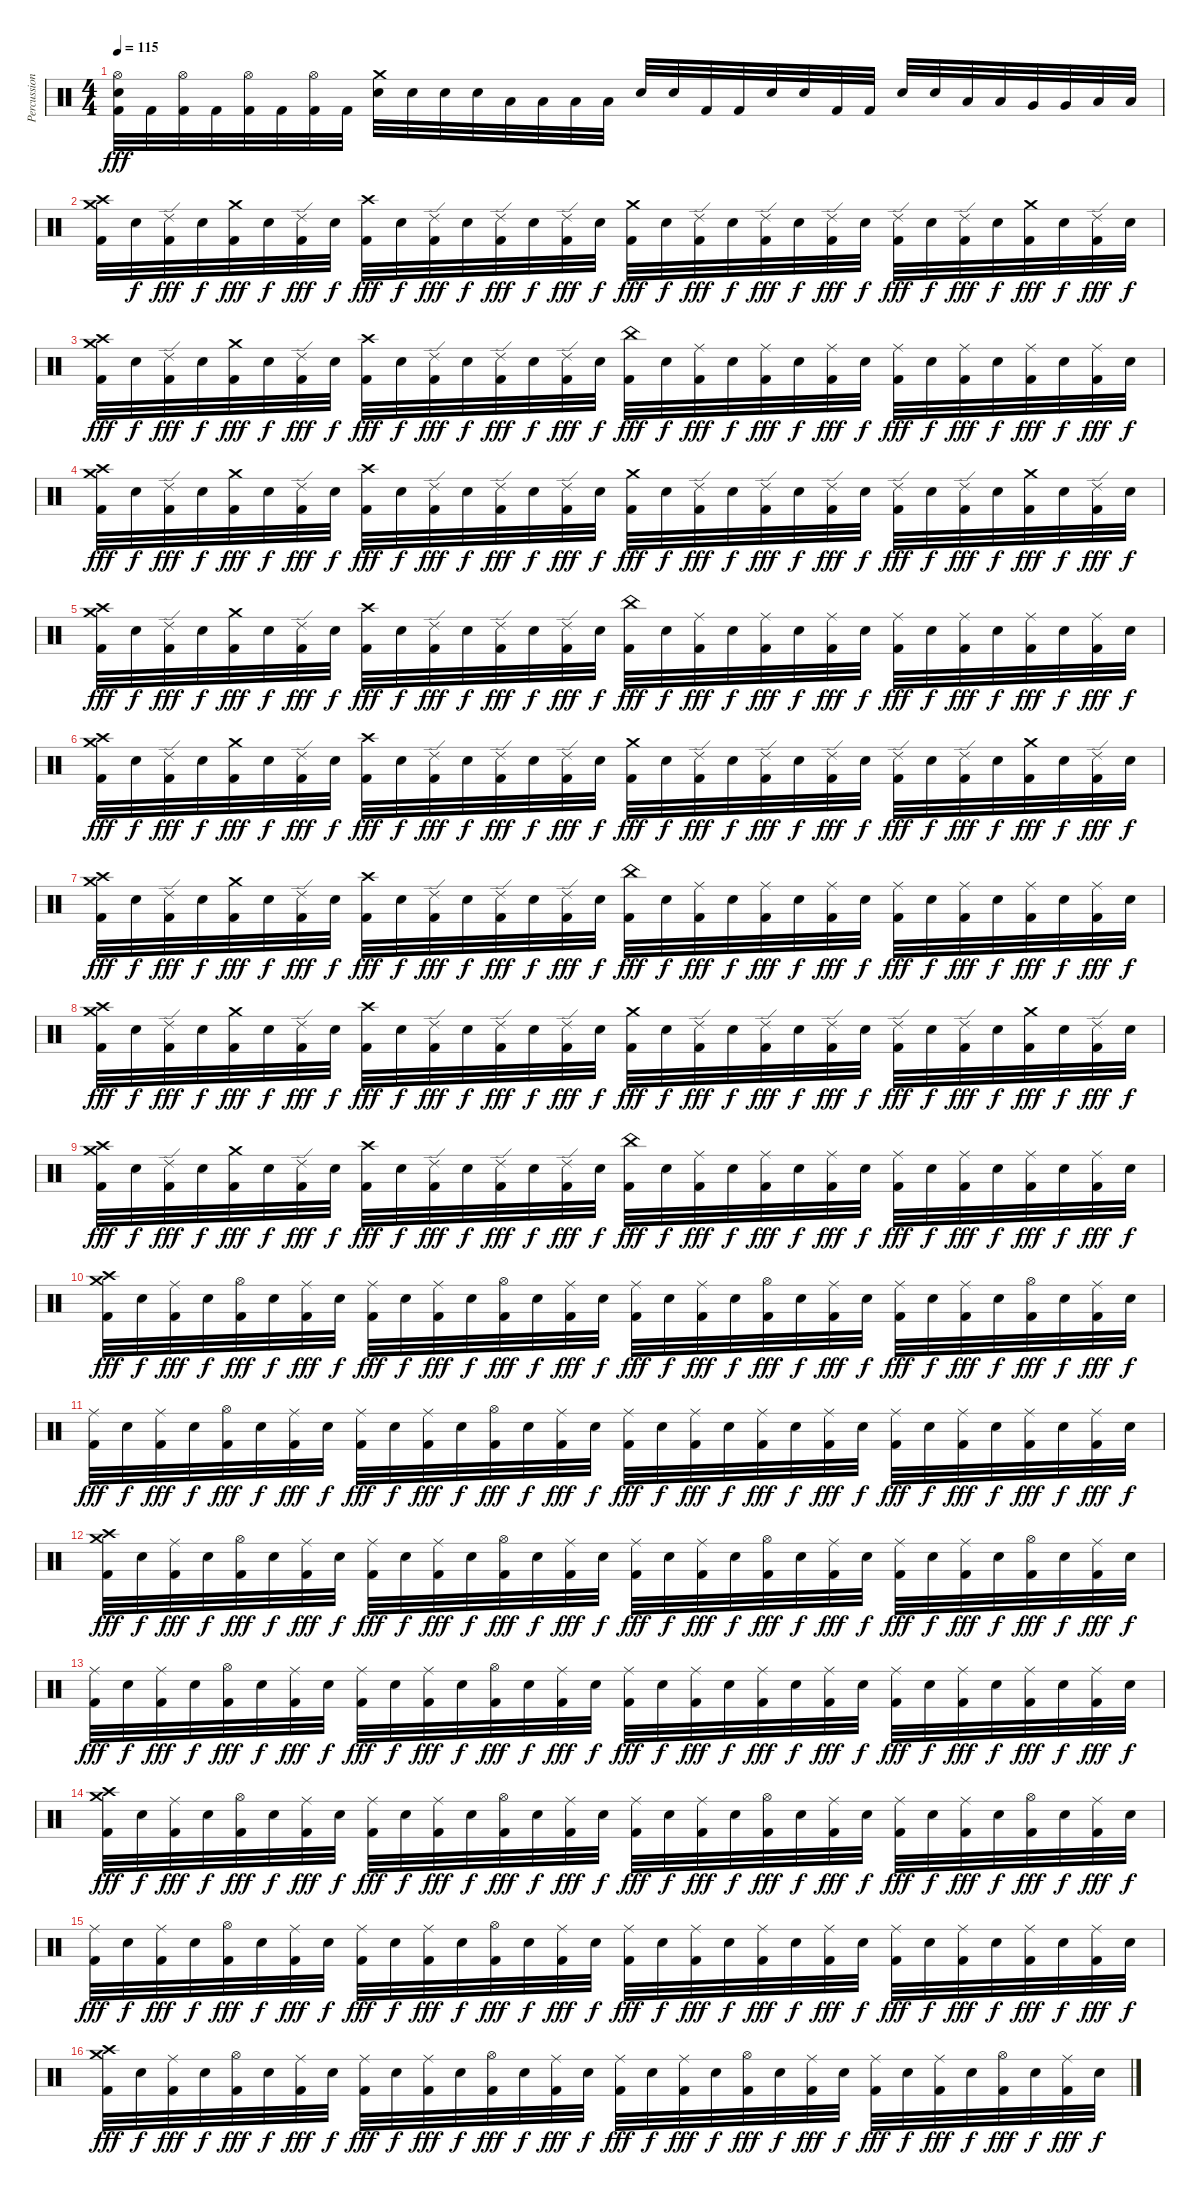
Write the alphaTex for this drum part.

\track ("Percussion" "Percussion") {instrument percussion}
\staff
\articulation defaults
\ts (4 4)
\tempo 115
\clef neutral
\ks c
("Hi-Hat (open)" "Snare (hit) 2" "Kick (hit) 2").32{dy fff} "Kick (hit) 2".32 ("Hi-Hat (open)" "Kick (hit) 2").32 "Kick (hit) 2".32 ("Hi-Hat (open)" "Kick (hit) 2").32 "Kick (hit) 2".32 ("Hi-Hat (open)" "Kick (hit) 2").32 "Kick (hit) 2".32 ("Crash medium (hit)" "Snare (hit) 2").32 "Snare (hit) 2".32 "Snare (hit) 2".32 "Snare (hit) 2".32 "Low Tom (hit)".32 "Low Tom (hit)".32 "Low Tom (hit)".32 "Low Tom (hit)".32 "Snare (hit) 2".32 "Snare (hit) 2".32 "Kick (hit) 2".32 "Kick (hit) 2".32 "Snare (hit) 2".32 "Snare (hit) 2".32 "Kick (hit) 2".32 "Kick (hit) 2".32 "Snare (hit) 2".32 "Snare (hit) 2".32 "Low Tom (hit)".32 "Low Tom (hit)".32 "Very Low Tom (hit)".32 "Very Low Tom (hit)".32 "Low Floor Tom (hit)".32 "Low Floor Tom (hit)".32 |
("Crash high (hit)" "Crash medium (hit)" "Kick (hit) 2").32 "Snare (hit) 2".32{dy f} ("Ride (edge) 2" "Kick (hit) 2").32{dy fff} "Snare (hit) 2".32{dy f} ("Crash medium (hit)" "Kick (hit) 2").32{dy fff} "Snare (hit) 2".32{dy f} ("Ride (edge) 2" "Kick (hit) 2").32{dy fff} "Snare (hit) 2".32{dy f} ("Crash high (hit)" "Kick (hit) 2").32{dy fff} "Snare (hit) 2".32{dy f} ("Ride (edge) 2" "Kick (hit) 2").32{dy fff} "Snare (hit) 2".32{dy f} ("Ride (edge) 2" "Kick (hit) 2").32{dy fff} "Snare (hit) 2".32{dy f} ("Ride (edge) 2" "Kick (hit) 2").32{dy fff} "Snare (hit) 2".32{dy f} ("Crash medium (hit)" "Kick (hit) 2").32{dy fff} "Snare (hit) 2".32{dy f} ("Ride (edge) 2" "Kick (hit) 2").32{dy fff} "Snare (hit) 2".32{dy f} ("Ride (edge) 2" "Kick (hit) 2").32{dy fff} "Snare (hit) 2".32{dy f} ("Ride (edge) 2" "Kick (hit) 2").32{dy fff} "Snare (hit) 2".32{dy f} ("Ride (edge) 2" "Kick (hit) 2").32{dy fff} "Snare (hit) 2".32{dy f} ("Ride (edge) 2" "Kick (hit) 2").32{dy fff} "Snare (hit) 2".32{dy f} ("Crash medium (hit)" "Kick (hit) 2").32{dy fff} "Snare (hit) 2".32{dy f} ("Ride (edge) 2" "Kick (hit) 2").32{dy fff} "Snare (hit) 2".32{dy f} |
("Crash high (hit)" "Crash medium (hit)" "Kick (hit) 2").32{dy fff} "Snare (hit) 2".32{dy f} ("Ride (edge) 2" "Kick (hit) 2").32{dy fff} "Snare (hit) 2".32{dy f} ("Crash medium (hit)" "Kick (hit) 2").32{dy fff} "Snare (hit) 2".32{dy f} ("Ride (edge) 2" "Kick (hit) 2").32{dy fff} "Snare (hit) 2".32{dy f} ("Crash high (hit)" "Kick (hit) 2").32{dy fff} "Snare (hit) 2".32{dy f} ("Ride (edge) 2" "Kick (hit) 2").32{dy fff} "Snare (hit) 2".32{dy f} ("Ride (edge) 2" "Kick (hit) 2").32{dy fff} "Snare (hit) 2".32{dy f} ("Ride (edge) 2" "Kick (hit) 2").32{dy fff} "Snare (hit) 2".32{dy f} ("China (hit)" "Kick (hit) 2").32{dy fff} "Snare (hit) 2".32{dy f} ("Ride (middle)" "Kick (hit) 2").32{dy fff} "Snare (hit) 2".32{dy f} ("Ride (middle)" "Kick (hit) 2").32{dy fff} "Snare (hit) 2".32{dy f} ("Ride (middle)" "Kick (hit) 2").32{dy fff} "Snare (hit) 2".32{dy f} ("Ride (middle)" "Kick (hit) 2").32{dy fff} "Snare (hit) 2".32{dy f} ("Ride (middle)" "Kick (hit) 2").32{dy fff} "Snare (hit) 2".32{dy f} ("Ride (middle)" "Kick (hit) 2").32{dy fff} "Snare (hit) 2".32{dy f} ("Ride (middle)" "Kick (hit) 2").32{dy fff} "Snare (hit) 2".32{dy f} |
("Crash high (hit)" "Crash medium (hit)" "Kick (hit) 2").32{dy fff} "Snare (hit) 2".32{dy f} ("Ride (edge) 2" "Kick (hit) 2").32{dy fff} "Snare (hit) 2".32{dy f} ("Crash medium (hit)" "Kick (hit) 2").32{dy fff} "Snare (hit) 2".32{dy f} ("Ride (edge) 2" "Kick (hit) 2").32{dy fff} "Snare (hit) 2".32{dy f} ("Crash high (hit)" "Kick (hit) 2").32{dy fff} "Snare (hit) 2".32{dy f} ("Ride (edge) 2" "Kick (hit) 2").32{dy fff} "Snare (hit) 2".32{dy f} ("Ride (edge) 2" "Kick (hit) 2").32{dy fff} "Snare (hit) 2".32{dy f} ("Ride (edge) 2" "Kick (hit) 2").32{dy fff} "Snare (hit) 2".32{dy f} ("Crash medium (hit)" "Kick (hit) 2").32{dy fff} "Snare (hit) 2".32{dy f} ("Ride (edge) 2" "Kick (hit) 2").32{dy fff} "Snare (hit) 2".32{dy f} ("Ride (edge) 2" "Kick (hit) 2").32{dy fff} "Snare (hit) 2".32{dy f} ("Ride (edge) 2" "Kick (hit) 2").32{dy fff} "Snare (hit) 2".32{dy f} ("Ride (edge) 2" "Kick (hit) 2").32{dy fff} "Snare (hit) 2".32{dy f} ("Ride (edge) 2" "Kick (hit) 2").32{dy fff} "Snare (hit) 2".32{dy f} ("Crash medium (hit)" "Kick (hit) 2").32{dy fff} "Snare (hit) 2".32{dy f} ("Ride (edge) 2" "Kick (hit) 2").32{dy fff} "Snare (hit) 2".32{dy f} |
("Crash high (hit)" "Crash medium (hit)" "Kick (hit) 2").32{dy fff} "Snare (hit) 2".32{dy f} ("Ride (edge) 2" "Kick (hit) 2").32{dy fff} "Snare (hit) 2".32{dy f} ("Crash medium (hit)" "Kick (hit) 2").32{dy fff} "Snare (hit) 2".32{dy f} ("Ride (edge) 2" "Kick (hit) 2").32{dy fff} "Snare (hit) 2".32{dy f} ("Crash high (hit)" "Kick (hit) 2").32{dy fff} "Snare (hit) 2".32{dy f} ("Ride (edge) 2" "Kick (hit) 2").32{dy fff} "Snare (hit) 2".32{dy f} ("Ride (edge) 2" "Kick (hit) 2").32{dy fff} "Snare (hit) 2".32{dy f} ("Ride (edge) 2" "Kick (hit) 2").32{dy fff} "Snare (hit) 2".32{dy f} ("China (hit)" "Kick (hit) 2").32{dy fff} "Snare (hit) 2".32{dy f} ("Ride (middle)" "Kick (hit) 2").32{dy fff} "Snare (hit) 2".32{dy f} ("Ride (middle)" "Kick (hit) 2").32{dy fff} "Snare (hit) 2".32{dy f} ("Ride (middle)" "Kick (hit) 2").32{dy fff} "Snare (hit) 2".32{dy f} ("Ride (middle)" "Kick (hit) 2").32{dy fff} "Snare (hit) 2".32{dy f} ("Ride (middle)" "Kick (hit) 2").32{dy fff} "Snare (hit) 2".32{dy f} ("Ride (middle)" "Kick (hit) 2").32{dy fff} "Snare (hit) 2".32{dy f} ("Ride (middle)" "Kick (hit) 2").32{dy fff} "Snare (hit) 2".32{dy f} |
("Crash high (hit)" "Crash medium (hit)" "Kick (hit) 2").32{dy fff} "Snare (hit) 2".32{dy f} ("Ride (edge) 2" "Kick (hit) 2").32{dy fff} "Snare (hit) 2".32{dy f} ("Crash medium (hit)" "Kick (hit) 2").32{dy fff} "Snare (hit) 2".32{dy f} ("Ride (edge) 2" "Kick (hit) 2").32{dy fff} "Snare (hit) 2".32{dy f} ("Crash high (hit)" "Kick (hit) 2").32{dy fff} "Snare (hit) 2".32{dy f} ("Ride (edge) 2" "Kick (hit) 2").32{dy fff} "Snare (hit) 2".32{dy f} ("Ride (edge) 2" "Kick (hit) 2").32{dy fff} "Snare (hit) 2".32{dy f} ("Ride (edge) 2" "Kick (hit) 2").32{dy fff} "Snare (hit) 2".32{dy f} ("Crash medium (hit)" "Kick (hit) 2").32{dy fff} "Snare (hit) 2".32{dy f} ("Ride (edge) 2" "Kick (hit) 2").32{dy fff} "Snare (hit) 2".32{dy f} ("Ride (edge) 2" "Kick (hit) 2").32{dy fff} "Snare (hit) 2".32{dy f} ("Ride (edge) 2" "Kick (hit) 2").32{dy fff} "Snare (hit) 2".32{dy f} ("Ride (edge) 2" "Kick (hit) 2").32{dy fff} "Snare (hit) 2".32{dy f} ("Ride (edge) 2" "Kick (hit) 2").32{dy fff} "Snare (hit) 2".32{dy f} ("Crash medium (hit)" "Kick (hit) 2").32{dy fff} "Snare (hit) 2".32{dy f} ("Ride (edge) 2" "Kick (hit) 2").32{dy fff} "Snare (hit) 2".32{dy f} |
("Crash high (hit)" "Crash medium (hit)" "Kick (hit) 2").32{dy fff} "Snare (hit) 2".32{dy f} ("Ride (edge) 2" "Kick (hit) 2").32{dy fff} "Snare (hit) 2".32{dy f} ("Crash medium (hit)" "Kick (hit) 2").32{dy fff} "Snare (hit) 2".32{dy f} ("Ride (edge) 2" "Kick (hit) 2").32{dy fff} "Snare (hit) 2".32{dy f} ("Crash high (hit)" "Kick (hit) 2").32{dy fff} "Snare (hit) 2".32{dy f} ("Ride (edge) 2" "Kick (hit) 2").32{dy fff} "Snare (hit) 2".32{dy f} ("Ride (edge) 2" "Kick (hit) 2").32{dy fff} "Snare (hit) 2".32{dy f} ("Ride (edge) 2" "Kick (hit) 2").32{dy fff} "Snare (hit) 2".32{dy f} ("China (hit)" "Kick (hit) 2").32{dy fff} "Snare (hit) 2".32{dy f} ("Ride (middle)" "Kick (hit) 2").32{dy fff} "Snare (hit) 2".32{dy f} ("Ride (middle)" "Kick (hit) 2").32{dy fff} "Snare (hit) 2".32{dy f} ("Ride (middle)" "Kick (hit) 2").32{dy fff} "Snare (hit) 2".32{dy f} ("Ride (middle)" "Kick (hit) 2").32{dy fff} "Snare (hit) 2".32{dy f} ("Ride (middle)" "Kick (hit) 2").32{dy fff} "Snare (hit) 2".32{dy f} ("Ride (middle)" "Kick (hit) 2").32{dy fff} "Snare (hit) 2".32{dy f} ("Ride (middle)" "Kick (hit) 2").32{dy fff} "Snare (hit) 2".32{dy f} |
("Crash high (hit)" "Crash medium (hit)" "Kick (hit) 2").32{dy fff} "Snare (hit) 2".32{dy f} ("Ride (edge) 2" "Kick (hit) 2").32{dy fff} "Snare (hit) 2".32{dy f} ("Crash medium (hit)" "Kick (hit) 2").32{dy fff} "Snare (hit) 2".32{dy f} ("Ride (edge) 2" "Kick (hit) 2").32{dy fff} "Snare (hit) 2".32{dy f} ("Crash high (hit)" "Kick (hit) 2").32{dy fff} "Snare (hit) 2".32{dy f} ("Ride (edge) 2" "Kick (hit) 2").32{dy fff} "Snare (hit) 2".32{dy f} ("Ride (edge) 2" "Kick (hit) 2").32{dy fff} "Snare (hit) 2".32{dy f} ("Ride (edge) 2" "Kick (hit) 2").32{dy fff} "Snare (hit) 2".32{dy f} ("Crash medium (hit)" "Kick (hit) 2").32{dy fff} "Snare (hit) 2".32{dy f} ("Ride (edge) 2" "Kick (hit) 2").32{dy fff} "Snare (hit) 2".32{dy f} ("Ride (edge) 2" "Kick (hit) 2").32{dy fff} "Snare (hit) 2".32{dy f} ("Ride (edge) 2" "Kick (hit) 2").32{dy fff} "Snare (hit) 2".32{dy f} ("Ride (edge) 2" "Kick (hit) 2").32{dy fff} "Snare (hit) 2".32{dy f} ("Ride (edge) 2" "Kick (hit) 2").32{dy fff} "Snare (hit) 2".32{dy f} ("Crash medium (hit)" "Kick (hit) 2").32{dy fff} "Snare (hit) 2".32{dy f} ("Ride (edge) 2" "Kick (hit) 2").32{dy fff} "Snare (hit) 2".32{dy f} |
("Crash high (hit)" "Crash medium (hit)" "Kick (hit) 2").32{dy fff} "Snare (hit) 2".32{dy f} ("Ride (edge) 2" "Kick (hit) 2").32{dy fff} "Snare (hit) 2".32{dy f} ("Crash medium (hit)" "Kick (hit) 2").32{dy fff} "Snare (hit) 2".32{dy f} ("Ride (edge) 2" "Kick (hit) 2").32{dy fff} "Snare (hit) 2".32{dy f} ("Crash high (hit)" "Kick (hit) 2").32{dy fff} "Snare (hit) 2".32{dy f} ("Ride (edge) 2" "Kick (hit) 2").32{dy fff} "Snare (hit) 2".32{dy f} ("Ride (edge) 2" "Kick (hit) 2").32{dy fff} "Snare (hit) 2".32{dy f} ("Ride (edge) 2" "Kick (hit) 2").32{dy fff} "Snare (hit) 2".32{dy f} ("China (hit)" "Kick (hit) 2").32{dy fff} "Snare (hit) 2".32{dy f} ("Ride (middle)" "Kick (hit) 2").32{dy fff} "Snare (hit) 2".32{dy f} ("Ride (middle)" "Kick (hit) 2").32{dy fff} "Snare (hit) 2".32{dy f} ("Ride (middle)" "Kick (hit) 2").32{dy fff} "Snare (hit) 2".32{dy f} ("Ride (middle)" "Kick (hit) 2").32{dy fff} "Snare (hit) 2".32{dy f} ("Ride (middle)" "Kick (hit) 2").32{dy fff} "Snare (hit) 2".32{dy f} ("Ride (middle)" "Kick (hit) 2").32{dy fff} "Snare (hit) 2".32{dy f} ("Ride (middle)" "Kick (hit) 2").32{dy fff} "Snare (hit) 2".32{dy f} |
("Crash high (hit)" "Crash medium (hit)" "Kick (hit) 2").32{dy fff} "Snare (hit) 2".32{dy f} ("Ride (middle)" "Kick (hit) 2").32{dy fff} "Snare (hit) 2".32{dy f} ("Hi-Hat (open)" "Kick (hit) 2").32{dy fff} "Snare (hit) 2".32{dy f} ("Ride (middle)" "Kick (hit) 2").32{dy fff} "Snare (hit) 2".32{dy f} ("Ride (middle)" "Kick (hit) 2").32{dy fff} "Snare (hit) 2".32{dy f} ("Ride (middle)" "Kick (hit) 2").32{dy fff} "Snare (hit) 2".32{dy f} ("Hi-Hat (open)" "Kick (hit) 2").32{dy fff} "Snare (hit) 2".32{dy f} ("Ride (middle)" "Kick (hit) 2").32{dy fff} "Snare (hit) 2".32{dy f} ("Ride (middle)" "Kick (hit) 2").32{dy fff} "Snare (hit) 2".32{dy f} ("Ride (middle)" "Kick (hit) 2").32{dy fff} "Snare (hit) 2".32{dy f} ("Hi-Hat (open)" "Kick (hit) 2").32{dy fff} "Snare (hit) 2".32{dy f} ("Ride (middle)" "Kick (hit) 2").32{dy fff} "Snare (hit) 2".32{dy f} ("Ride (middle)" "Kick (hit) 2").32{dy fff} "Snare (hit) 2".32{dy f} ("Ride (middle)" "Kick (hit) 2").32{dy fff} "Snare (hit) 2".32{dy f} ("Hi-Hat (open)" "Kick (hit) 2").32{dy fff} "Snare (hit) 2".32{dy f} ("Ride (middle)" "Kick (hit) 2").32{dy fff} "Snare (hit) 2".32{dy f} |
("Ride (middle)" "Kick (hit) 2").32{dy fff} "Snare (hit) 2".32{dy f} ("Ride (middle)" "Kick (hit) 2").32{dy fff} "Snare (hit) 2".32{dy f} ("Hi-Hat (open)" "Kick (hit) 2").32{dy fff} "Snare (hit) 2".32{dy f} ("Ride (middle)" "Kick (hit) 2").32{dy fff} "Snare (hit) 2".32{dy f} ("Ride (middle)" "Kick (hit) 2").32{dy fff} "Snare (hit) 2".32{dy f} ("Ride (middle)" "Kick (hit) 2").32{dy fff} "Snare (hit) 2".32{dy f} ("Hi-Hat (open)" "Kick (hit) 2").32{dy fff} "Snare (hit) 2".32{dy f} ("Ride (middle)" "Kick (hit) 2").32{dy fff} "Snare (hit) 2".32{dy f} ("Ride (middle)" "Kick (hit) 2").32{dy fff} "Snare (hit) 2".32{dy f} ("Ride (middle)" "Kick (hit) 2").32{dy fff} "Snare (hit) 2".32{dy f} ("Ride (middle)" "Kick (hit) 2").32{dy fff} "Snare (hit) 2".32{dy f} ("Ride (middle)" "Kick (hit) 2").32{dy fff} "Snare (hit) 2".32{dy f} ("Ride (middle)" "Kick (hit) 2").32{dy fff} "Snare (hit) 2".32{dy f} ("Ride (middle)" "Kick (hit) 2").32{dy fff} "Snare (hit) 2".32{dy f} ("Ride (middle)" "Kick (hit) 2").32{dy fff} "Snare (hit) 2".32{dy f} ("Ride (middle)" "Kick (hit) 2").32{dy fff} "Snare (hit) 2".32{dy f} |
("Crash high (hit)" "Crash medium (hit)" "Kick (hit) 2").32{dy fff} "Snare (hit) 2".32{dy f} ("Ride (middle)" "Kick (hit) 2").32{dy fff} "Snare (hit) 2".32{dy f} ("Hi-Hat (open)" "Kick (hit) 2").32{dy fff} "Snare (hit) 2".32{dy f} ("Ride (middle)" "Kick (hit) 2").32{dy fff} "Snare (hit) 2".32{dy f} ("Ride (middle)" "Kick (hit) 2").32{dy fff} "Snare (hit) 2".32{dy f} ("Ride (middle)" "Kick (hit) 2").32{dy fff} "Snare (hit) 2".32{dy f} ("Hi-Hat (open)" "Kick (hit) 2").32{dy fff} "Snare (hit) 2".32{dy f} ("Ride (middle)" "Kick (hit) 2").32{dy fff} "Snare (hit) 2".32{dy f} ("Ride (middle)" "Kick (hit) 2").32{dy fff} "Snare (hit) 2".32{dy f} ("Ride (middle)" "Kick (hit) 2").32{dy fff} "Snare (hit) 2".32{dy f} ("Hi-Hat (open)" "Kick (hit) 2").32{dy fff} "Snare (hit) 2".32{dy f} ("Ride (middle)" "Kick (hit) 2").32{dy fff} "Snare (hit) 2".32{dy f} ("Ride (middle)" "Kick (hit) 2").32{dy fff} "Snare (hit) 2".32{dy f} ("Ride (middle)" "Kick (hit) 2").32{dy fff} "Snare (hit) 2".32{dy f} ("Hi-Hat (open)" "Kick (hit) 2").32{dy fff} "Snare (hit) 2".32{dy f} ("Ride (middle)" "Kick (hit) 2").32{dy fff} "Snare (hit) 2".32{dy f} |
("Ride (middle)" "Kick (hit) 2").32{dy fff} "Snare (hit) 2".32{dy f} ("Ride (middle)" "Kick (hit) 2").32{dy fff} "Snare (hit) 2".32{dy f} ("Hi-Hat (open)" "Kick (hit) 2").32{dy fff} "Snare (hit) 2".32{dy f} ("Ride (middle)" "Kick (hit) 2").32{dy fff} "Snare (hit) 2".32{dy f} ("Ride (middle)" "Kick (hit) 2").32{dy fff} "Snare (hit) 2".32{dy f} ("Ride (middle)" "Kick (hit) 2").32{dy fff} "Snare (hit) 2".32{dy f} ("Hi-Hat (open)" "Kick (hit) 2").32{dy fff} "Snare (hit) 2".32{dy f} ("Ride (middle)" "Kick (hit) 2").32{dy fff} "Snare (hit) 2".32{dy f} ("Ride (middle)" "Kick (hit) 2").32{dy fff} "Snare (hit) 2".32{dy f} ("Ride (middle)" "Kick (hit) 2").32{dy fff} "Snare (hit) 2".32{dy f} ("Ride (middle)" "Kick (hit) 2").32{dy fff} "Snare (hit) 2".32{dy f} ("Ride (middle)" "Kick (hit) 2").32{dy fff} "Snare (hit) 2".32{dy f} ("Ride (middle)" "Kick (hit) 2").32{dy fff} "Snare (hit) 2".32{dy f} ("Ride (middle)" "Kick (hit) 2").32{dy fff} "Snare (hit) 2".32{dy f} ("Ride (middle)" "Kick (hit) 2").32{dy fff} "Snare (hit) 2".32{dy f} ("Ride (middle)" "Kick (hit) 2").32{dy fff} "Snare (hit) 2".32{dy f} |
("Crash high (hit)" "Crash medium (hit)" "Kick (hit) 2").32{dy fff} "Snare (hit) 2".32{dy f} ("Ride (middle)" "Kick (hit) 2").32{dy fff} "Snare (hit) 2".32{dy f} ("Hi-Hat (open)" "Kick (hit) 2").32{dy fff} "Snare (hit) 2".32{dy f} ("Ride (middle)" "Kick (hit) 2").32{dy fff} "Snare (hit) 2".32{dy f} ("Ride (middle)" "Kick (hit) 2").32{dy fff} "Snare (hit) 2".32{dy f} ("Ride (middle)" "Kick (hit) 2").32{dy fff} "Snare (hit) 2".32{dy f} ("Hi-Hat (open)" "Kick (hit) 2").32{dy fff} "Snare (hit) 2".32{dy f} ("Ride (middle)" "Kick (hit) 2").32{dy fff} "Snare (hit) 2".32{dy f} ("Ride (middle)" "Kick (hit) 2").32{dy fff} "Snare (hit) 2".32{dy f} ("Ride (middle)" "Kick (hit) 2").32{dy fff} "Snare (hit) 2".32{dy f} ("Hi-Hat (open)" "Kick (hit) 2").32{dy fff} "Snare (hit) 2".32{dy f} ("Ride (middle)" "Kick (hit) 2").32{dy fff} "Snare (hit) 2".32{dy f} ("Ride (middle)" "Kick (hit) 2").32{dy fff} "Snare (hit) 2".32{dy f} ("Ride (middle)" "Kick (hit) 2").32{dy fff} "Snare (hit) 2".32{dy f} ("Hi-Hat (open)" "Kick (hit) 2").32{dy fff} "Snare (hit) 2".32{dy f} ("Ride (middle)" "Kick (hit) 2").32{dy fff} "Snare (hit) 2".32{dy f} |
("Ride (middle)" "Kick (hit) 2").32{dy fff} "Snare (hit) 2".32{dy f} ("Ride (middle)" "Kick (hit) 2").32{dy fff} "Snare (hit) 2".32{dy f} ("Hi-Hat (open)" "Kick (hit) 2").32{dy fff} "Snare (hit) 2".32{dy f} ("Ride (middle)" "Kick (hit) 2").32{dy fff} "Snare (hit) 2".32{dy f} ("Ride (middle)" "Kick (hit) 2").32{dy fff} "Snare (hit) 2".32{dy f} ("Ride (middle)" "Kick (hit) 2").32{dy fff} "Snare (hit) 2".32{dy f} ("Hi-Hat (open)" "Kick (hit) 2").32{dy fff} "Snare (hit) 2".32{dy f} ("Ride (middle)" "Kick (hit) 2").32{dy fff} "Snare (hit) 2".32{dy f} ("Ride (middle)" "Kick (hit) 2").32{dy fff} "Snare (hit) 2".32{dy f} ("Ride (middle)" "Kick (hit) 2").32{dy fff} "Snare (hit) 2".32{dy f} ("Ride (middle)" "Kick (hit) 2").32{dy fff} "Snare (hit) 2".32{dy f} ("Ride (middle)" "Kick (hit) 2").32{dy fff} "Snare (hit) 2".32{dy f} ("Ride (middle)" "Kick (hit) 2").32{dy fff} "Snare (hit) 2".32{dy f} ("Ride (middle)" "Kick (hit) 2").32{dy fff} "Snare (hit) 2".32{dy f} ("Ride (middle)" "Kick (hit) 2").32{dy fff} "Snare (hit) 2".32{dy f} ("Ride (middle)" "Kick (hit) 2").32{dy fff} "Snare (hit) 2".32{dy f} |
("Crash high (hit)" "Crash medium (hit)" "Kick (hit) 2").32{dy fff} "Snare (hit) 2".32{dy f} ("Ride (middle)" "Kick (hit) 2").32{dy fff} "Snare (hit) 2".32{dy f} ("Hi-Hat (open)" "Kick (hit) 2").32{dy fff} "Snare (hit) 2".32{dy f} ("Ride (middle)" "Kick (hit) 2").32{dy fff} "Snare (hit) 2".32{dy f} ("Ride (middle)" "Kick (hit) 2").32{dy fff} "Snare (hit) 2".32{dy f} ("Ride (middle)" "Kick (hit) 2").32{dy fff} "Snare (hit) 2".32{dy f} ("Hi-Hat (open)" "Kick (hit) 2").32{dy fff} "Snare (hit) 2".32{dy f} ("Ride (middle)" "Kick (hit) 2").32{dy fff} "Snare (hit) 2".32{dy f} ("Ride (middle)" "Kick (hit) 2").32{dy fff} "Snare (hit) 2".32{dy f} ("Ride (middle)" "Kick (hit) 2").32{dy fff} "Snare (hit) 2".32{dy f} ("Hi-Hat (open)" "Kick (hit) 2").32{dy fff} "Snare (hit) 2".32{dy f} ("Ride (middle)" "Kick (hit) 2").32{dy fff} "Snare (hit) 2".32{dy f} ("Ride (middle)" "Kick (hit) 2").32{dy fff} "Snare (hit) 2".32{dy f} ("Ride (middle)" "Kick (hit) 2").32{dy fff} "Snare (hit) 2".32{dy f} ("Hi-Hat (open)" "Kick (hit) 2").32{dy fff} "Snare (hit) 2".32{dy f} ("Ride (middle)" "Kick (hit) 2").32{dy fff} "Snare (hit) 2".32{dy f}
